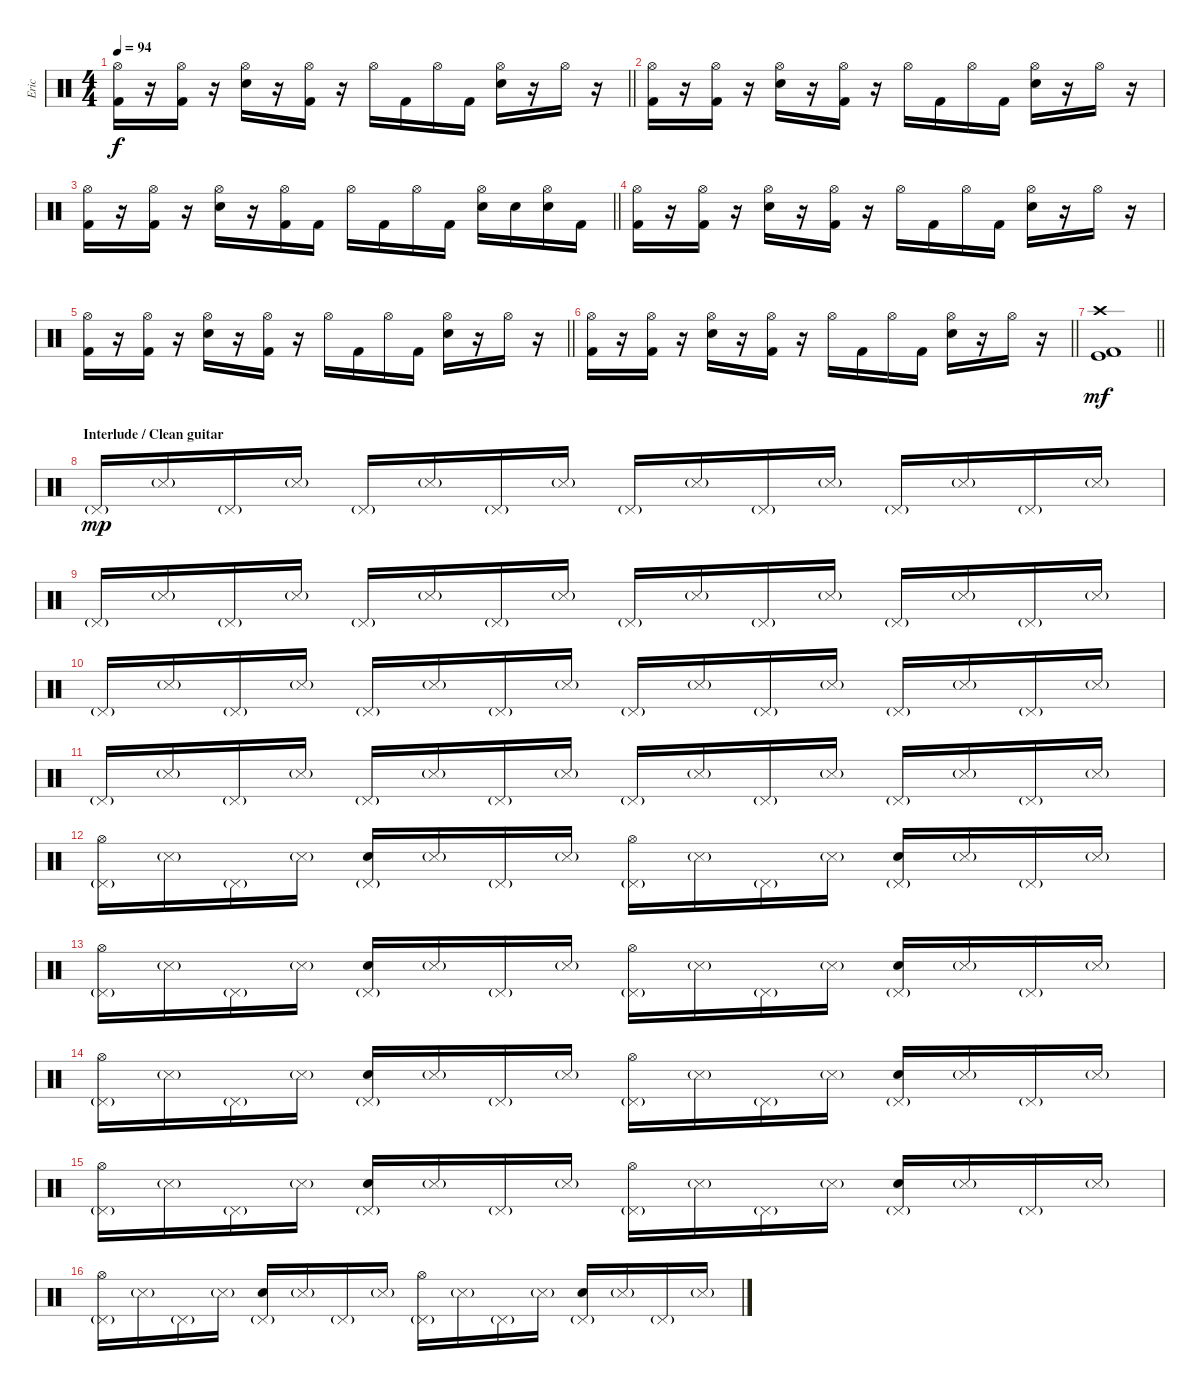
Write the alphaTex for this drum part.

\track ("Eric" "Eric") {instrument percussion}
\staff {score}
\articulation defaults
\ts (4 4)
\tempo 94
\clef neutral
\barLineRight lightlight
\ks c
("Hi-Hat (open)" "Kick (hit) 2").16{dy f} r.16 ("Hi-Hat (open)" "Kick (hit) 2").16 r.16 ("Hi-Hat (open)" "Electric Snare (hit)").16 r.16 ("Hi-Hat (open)" "Kick (hit) 2").16 r.16 "Hi-Hat (open)".16 "Kick (hit) 2".16 "Hi-Hat (open)".16 "Kick (hit) 2".16 ("Hi-Hat (open)" "Electric Snare (hit)").16 r.16 "Hi-Hat (open)".16 r.16 |
("Hi-Hat (open)" "Kick (hit) 2").16 r.16 ("Hi-Hat (open)" "Kick (hit) 2").16 r.16 ("Hi-Hat (open)" "Electric Snare (hit)").16 r.16 ("Hi-Hat (open)" "Kick (hit) 2").16 r.16 "Hi-Hat (open)".16 "Kick (hit) 2".16 "Hi-Hat (open)".16 "Kick (hit) 2".16 ("Hi-Hat (open)" "Electric Snare (hit)").16 r.16 "Hi-Hat (open)".16 r.16 |
\barLineRight lightlight
("Hi-Hat (open)" "Kick (hit) 2").16 r.16 ("Hi-Hat (open)" "Kick (hit) 2").16 r.16 ("Hi-Hat (open)" "Electric Snare (hit)").16 r.16 ("Hi-Hat (open)" "Kick (hit) 2").16 "Kick (hit) 2".16 "Hi-Hat (open)".16 "Kick (hit) 2".16 "Hi-Hat (open)".16 "Kick (hit) 2".16 ("Hi-Hat (open)" "Electric Snare (hit)").16 "Electric Snare (hit)".16 ("Hi-Hat (open)" "Electric Snare (hit)").16 "Kick (hit) 2".16 |
("Hi-Hat (open)" "Kick (hit) 2").16 r.16 ("Hi-Hat (open)" "Kick (hit) 2").16 r.16 ("Hi-Hat (open)" "Electric Snare (hit)").16 r.16 ("Hi-Hat (open)" "Kick (hit) 2").16 r.16 "Hi-Hat (open)".16 "Kick (hit) 2".16 "Hi-Hat (open)".16 "Kick (hit) 2".16 ("Hi-Hat (open)" "Electric Snare (hit)").16 r.16 "Hi-Hat (open)".16 r.16 |
\barLineRight lightlight
("Hi-Hat (open)" "Kick (hit) 2").16 r.16 ("Hi-Hat (open)" "Kick (hit) 2").16 r.16 ("Hi-Hat (open)" "Electric Snare (hit)").16 r.16 ("Hi-Hat (open)" "Kick (hit) 2").16 r.16 "Hi-Hat (open)".16 "Kick (hit) 2".16 "Hi-Hat (open)".16 "Kick (hit) 2".16 ("Hi-Hat (open)" "Electric Snare (hit)").16 r.16 "Hi-Hat (open)".16 r.16 |
\barLineRight lightlight
("Hi-Hat (open)" "Kick (hit) 2").16 r.16 ("Hi-Hat (open)" "Kick (hit) 2").16 r.16 ("Hi-Hat (open)" "Electric Snare (hit)").16 r.16 ("Hi-Hat (open)" "Kick (hit) 2").16 r.16 "Hi-Hat (open)".16 "Kick (hit) 2".16 "Hi-Hat (open)".16 "Kick (hit) 2".16 ("Hi-Hat (open)" "Electric Snare (hit)").16 r.16 "Hi-Hat (open)".16 r.16 |
\barLineRight lightlight
("Crash high (hit)" "Kick (hit)" "Kick (hit) 2").1{dy mf} |
\section ("" "Interlude / Clean guitar")
"Pedal Hi-Hat (hit)"{g}.16{dy mp} "Snare (side stick) 3"{g}.16 "Pedal Hi-Hat (hit)"{g}.16 "Snare (side stick) 3"{g}.16 "Pedal Hi-Hat (hit)"{g}.16 "Snare (side stick) 3"{g}.16 "Pedal Hi-Hat (hit)"{g}.16 "Snare (side stick) 3"{g}.16 "Pedal Hi-Hat (hit)"{g}.16 "Snare (side stick) 3"{g}.16 "Pedal Hi-Hat (hit)"{g}.16 "Snare (side stick) 3"{g}.16 "Pedal Hi-Hat (hit)"{g}.16 "Snare (side stick) 3"{g}.16 "Pedal Hi-Hat (hit)"{g}.16 "Snare (side stick) 3"{g}.16 |
"Pedal Hi-Hat (hit)"{g}.16 "Snare (side stick) 3"{g}.16 "Pedal Hi-Hat (hit)"{g}.16 "Snare (side stick) 3"{g}.16 "Pedal Hi-Hat (hit)"{g}.16 "Snare (side stick) 3"{g}.16 "Pedal Hi-Hat (hit)"{g}.16 "Snare (side stick) 3"{g}.16 "Pedal Hi-Hat (hit)"{g}.16 "Snare (side stick) 3"{g}.16 "Pedal Hi-Hat (hit)"{g}.16 "Snare (side stick) 3"{g}.16 "Pedal Hi-Hat (hit)"{g}.16 "Snare (side stick) 3"{g}.16 "Pedal Hi-Hat (hit)"{g}.16 "Snare (side stick) 3"{g}.16 |
"Pedal Hi-Hat (hit)"{g}.16 "Snare (side stick) 3"{g}.16 "Pedal Hi-Hat (hit)"{g}.16 "Snare (side stick) 3"{g}.16 "Pedal Hi-Hat (hit)"{g}.16 "Snare (side stick) 3"{g}.16 "Pedal Hi-Hat (hit)"{g}.16 "Snare (side stick) 3"{g}.16 "Pedal Hi-Hat (hit)"{g}.16 "Snare (side stick) 3"{g}.16 "Pedal Hi-Hat (hit)"{g}.16 "Snare (side stick) 3"{g}.16 "Pedal Hi-Hat (hit)"{g}.16 "Snare (side stick) 3"{g}.16 "Pedal Hi-Hat (hit)"{g}.16 "Snare (side stick) 3"{g}.16 |
"Pedal Hi-Hat (hit)"{g}.16 "Snare (side stick) 3"{g}.16 "Pedal Hi-Hat (hit)"{g}.16 "Snare (side stick) 3"{g}.16 "Pedal Hi-Hat (hit)"{g}.16 "Snare (side stick) 3"{g}.16 "Pedal Hi-Hat (hit)"{g}.16 "Snare (side stick) 3"{g}.16 "Pedal Hi-Hat (hit)"{g}.16 "Snare (side stick) 3"{g}.16 "Pedal Hi-Hat (hit)"{g}.16 "Snare (side stick) 3"{g}.16 "Pedal Hi-Hat (hit)"{g}.16 "Snare (side stick) 3"{g}.16 "Pedal Hi-Hat (hit)"{g}.16 "Snare (side stick) 3"{g}.16 |
("Pedal Hi-Hat (hit)"{g} "Hi-Hat (open)").16 "Snare (side stick) 3"{g}.16 "Pedal Hi-Hat (hit)"{g}.16 "Snare (side stick) 3"{g}.16 ("Pedal Hi-Hat (hit)"{g} "Snare (hit) 2").16 "Snare (side stick) 3"{g}.16 "Pedal Hi-Hat (hit)"{g}.16 "Snare (side stick) 3"{g}.16 ("Pedal Hi-Hat (hit)"{g} "Hi-Hat (open)").16 "Snare (side stick) 3"{g}.16 "Pedal Hi-Hat (hit)"{g}.16 "Snare (side stick) 3"{g}.16 ("Pedal Hi-Hat (hit)"{g} "Snare (hit) 2").16 "Snare (side stick) 3"{g}.16 "Pedal Hi-Hat (hit)"{g}.16 "Snare (side stick) 3"{g}.16 |
("Pedal Hi-Hat (hit)"{g} "Hi-Hat (open)").16 "Snare (side stick) 3"{g}.16 "Pedal Hi-Hat (hit)"{g}.16 "Snare (side stick) 3"{g}.16 ("Pedal Hi-Hat (hit)"{g} "Snare (hit) 2").16 "Snare (side stick) 3"{g}.16 "Pedal Hi-Hat (hit)"{g}.16 "Snare (side stick) 3"{g}.16 ("Pedal Hi-Hat (hit)"{g} "Hi-Hat (open)").16 "Snare (side stick) 3"{g}.16 "Pedal Hi-Hat (hit)"{g}.16 "Snare (side stick) 3"{g}.16 ("Pedal Hi-Hat (hit)"{g} "Snare (hit) 2").16 "Snare (side stick) 3"{g}.16 "Pedal Hi-Hat (hit)"{g}.16 "Snare (side stick) 3"{g}.16 |
("Pedal Hi-Hat (hit)"{g} "Hi-Hat (open)").16 "Snare (side stick) 3"{g}.16 "Pedal Hi-Hat (hit)"{g}.16 "Snare (side stick) 3"{g}.16 ("Pedal Hi-Hat (hit)"{g} "Snare (hit) 2").16 "Snare (side stick) 3"{g}.16 "Pedal Hi-Hat (hit)"{g}.16 "Snare (side stick) 3"{g}.16 ("Pedal Hi-Hat (hit)"{g} "Hi-Hat (open)").16 "Snare (side stick) 3"{g}.16 "Pedal Hi-Hat (hit)"{g}.16 "Snare (side stick) 3"{g}.16 ("Pedal Hi-Hat (hit)"{g} "Snare (hit) 2").16 "Snare (side stick) 3"{g}.16 "Pedal Hi-Hat (hit)"{g}.16 "Snare (side stick) 3"{g}.16 |
("Pedal Hi-Hat (hit)"{g} "Hi-Hat (open)").16 "Snare (side stick) 3"{g}.16 "Pedal Hi-Hat (hit)"{g}.16 "Snare (side stick) 3"{g}.16 ("Pedal Hi-Hat (hit)"{g} "Snare (hit) 2").16 "Snare (side stick) 3"{g}.16 "Pedal Hi-Hat (hit)"{g}.16 "Snare (side stick) 3"{g}.16 ("Pedal Hi-Hat (hit)"{g} "Hi-Hat (open)").16 "Snare (side stick) 3"{g}.16 "Pedal Hi-Hat (hit)"{g}.16 "Snare (side stick) 3"{g}.16 ("Pedal Hi-Hat (hit)"{g} "Snare (hit) 2").16 "Snare (side stick) 3"{g}.16 "Pedal Hi-Hat (hit)"{g}.16 "Snare (side stick) 3"{g}.16 |
("Pedal Hi-Hat (hit)"{g} "Hi-Hat (open)").16 "Snare (side stick) 3"{g}.16 "Pedal Hi-Hat (hit)"{g}.16 "Snare (side stick) 3"{g}.16 ("Pedal Hi-Hat (hit)"{g} "Snare (hit) 2").16 "Snare (side stick) 3"{g}.16 "Pedal Hi-Hat (hit)"{g}.16 "Snare (side stick) 3"{g}.16 ("Pedal Hi-Hat (hit)"{g} "Hi-Hat (open)").16 "Snare (side stick) 3"{g}.16 "Pedal Hi-Hat (hit)"{g}.16 "Snare (side stick) 3"{g}.16 ("Pedal Hi-Hat (hit)"{g} "Snare (hit) 2").16 "Snare (side stick) 3"{g}.16 "Pedal Hi-Hat (hit)"{g}.16 "Snare (side stick) 3"{g}.16
